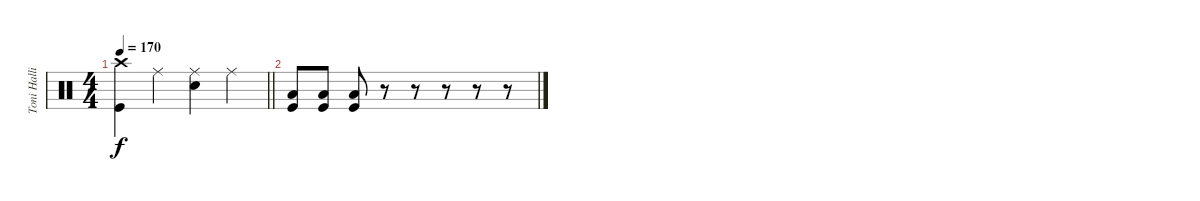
\track ("Toni Hallio" "Toni Halli") {instrument percussion}
\staff {score}
\articulation defaults
\ts (4 4)
\tempo 170
\clef neutral
\barLineRight lightlight
\ks c
("Crash high (hit)" "Kick (hit)").4{dy f} "Ride (middle)".4 ("Ride (middle)" "Snare (hit) 2").4 "Ride (middle)".4 |
("Low Floor Tom (hit)" "Kick (hit)").8 ("Low Floor Tom (hit)" "Kick (hit)").8 ("Low Floor Tom (hit)" "Kick (hit)").8 r.8 r.8 r.8 r.8 r.8
